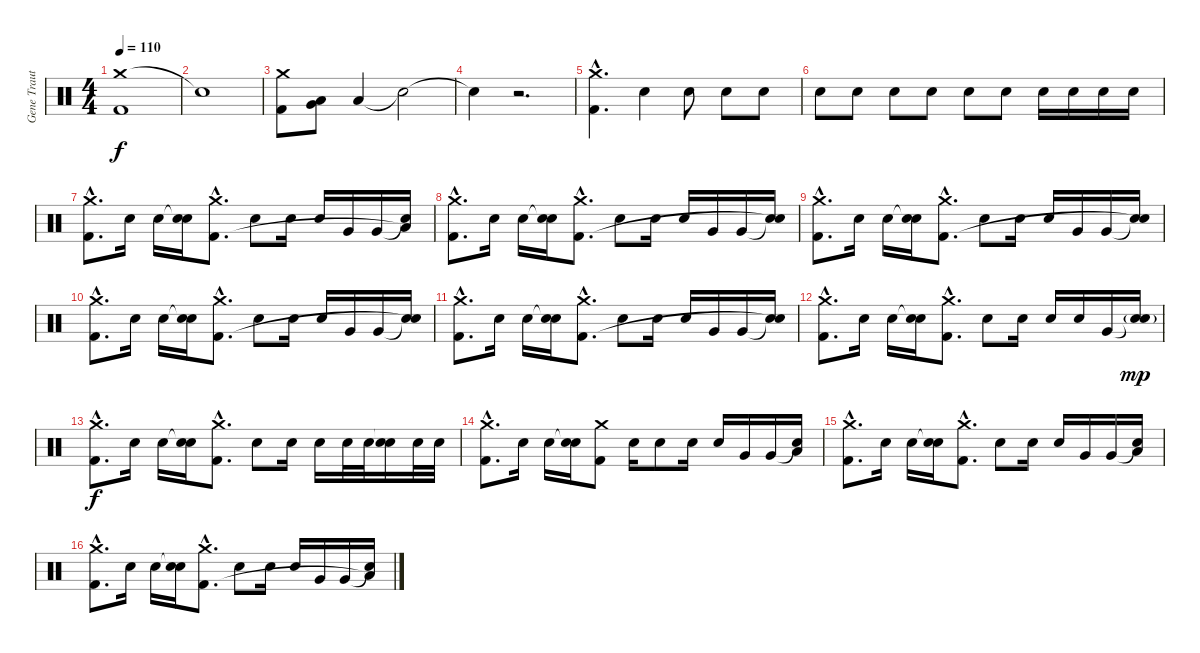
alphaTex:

\track ("Gene Trautmann (Drums)" "Gene Traut") {instrument percussion}
\staff {score}
\articulation defaults
\ts (4 4)
\tempo 110
\clef neutral
\ks c
("Crash medium (hit)" "Kick (hit) 2").1{dy f} |
"Snare (hit)"{t}.1 |
("Crash medium (hit)" "Kick (hit) 2").8 ("Very Low Tom (hit)" "Low Floor Tom (hit)").8 "Low Floor Tom (hit)".4 "Snare (hit)"{t}.2 |
"Snare (hit)"{t}.4 r.2{d} |
("Crash medium (hit)"{hac} "Kick (hit) 2"{hac}).4{d} "Electric Snare (hit)".4 "Electric Snare (hit)".8 "Electric Snare (hit)".8 "Electric Snare (hit)".8 |
"Electric Snare (hit)".8 "Electric Snare (hit)".8 "Electric Snare (hit)".8 "Electric Snare (hit)".8 "Electric Snare (hit)".8 "Electric Snare (hit)".8 "Electric Snare (hit)".16 "Electric Snare (hit)".16 "Electric Snare (hit)".16 "Electric Snare (hit)".16 |
("Crash medium (hit)"{hac} "Kick (hit) 2"{hac}).8{d} "Electric Snare (hit)".16 "Electric Snare (hit)".16 ("Snare (hit)"{t} "Electric Snare (hit)").16 ("Crash medium (hit)"{hac} "Kick (hit) 2"{hac}).8{d} "Electric Snare (hit)".8 "Electric Snare (hit)".16 "Electric Snare (hit)".16 "Very Low Tom (hit)".16 "Very Low Tom (hit)".16 ("Snare (hit)"{t} "Low Floor Tom (hit)"{t}).16 |
("Crash medium (hit)"{hac} "Kick (hit) 2"{hac}).8{d} "Electric Snare (hit)".16 "Electric Snare (hit)".16 ("Snare (hit)"{t} "Electric Snare (hit)").16 ("Crash medium (hit)"{hac} "Kick (hit) 2"{hac}).8{d} "Electric Snare (hit)".8 "Electric Snare (hit)".16 "Electric Snare (hit)".16 "Very Low Tom (hit)".16 "Very Low Tom (hit)".16 ("Snare (hit)"{t} "Snare (hit)"{t}).16 |
("Crash medium (hit)"{hac} "Kick (hit) 2"{hac}).8{d} "Electric Snare (hit)".16 "Electric Snare (hit)".16 ("Snare (hit)"{t} "Electric Snare (hit)").16 ("Crash medium (hit)"{hac} "Kick (hit) 2"{hac}).8{d} "Electric Snare (hit)".8 "Electric Snare (hit)".16 "Electric Snare (hit)".16 "Very Low Tom (hit)".16 "Very Low Tom (hit)".16 ("Snare (hit)"{t} "Snare (hit)"{t}).16 |
("Crash medium (hit)"{hac} "Kick (hit) 2"{hac}).8{d} "Electric Snare (hit)".16 "Electric Snare (hit)".16 ("Snare (hit)"{t} "Electric Snare (hit)").16 ("Crash medium (hit)"{hac} "Kick (hit) 2"{hac}).8{d} "Electric Snare (hit)".8 "Electric Snare (hit)".16 "Electric Snare (hit)".16 "Very Low Tom (hit)".16 "Very Low Tom (hit)".16 ("Snare (hit)"{t} "Snare (hit)"{t}).16 |
("Crash medium (hit)"{hac} "Kick (hit) 2"{hac}).8{d} "Electric Snare (hit)".16 "Electric Snare (hit)".16 ("Snare (hit)"{t} "Electric Snare (hit)").16 ("Crash medium (hit)"{hac} "Kick (hit) 2"{hac}).8{d} "Electric Snare (hit)".8 "Electric Snare (hit)".16 "Electric Snare (hit)".16 "Very Low Tom (hit)".16 "Very Low Tom (hit)".16 ("Snare (hit)"{t} "Snare (hit)"{t}).16 |
("Crash medium (hit)"{hac} "Kick (hit) 2"{hac}).8{d} "Electric Snare (hit)".16 "Electric Snare (hit)".16 ("Snare (hit)"{t} "Electric Snare (hit)").16 ("Crash medium (hit)"{hac} "Kick (hit) 2"{hac}).8{d} "Electric Snare (hit)".8 "Electric Snare (hit)".16 "Electric Snare (hit)".16 "Electric Snare (hit)".16 "Very Low Tom (hit)".16 ("Snare (hit)"{t} "Electric Snare (hit)"{g}).16{dy mp} |
("Crash medium (hit)"{hac} "Kick (hit) 2"{hac}).8{d dy f} "Electric Snare (hit)".16 "Electric Snare (hit)".16 ("Snare (hit)"{t} "Electric Snare (hit)").16 ("Crash medium (hit)"{hac} "Kick (hit) 2"{hac}).8{d} "Electric Snare (hit)".8 "Electric Snare (hit)".16 "Electric Snare (hit)".16 "Electric Snare (hit)".32 "Electric Snare (hit)".32 ("Snare (hit)"{t} "Electric Snare (hit)").16 "Electric Snare (hit)".32 "Electric Snare (hit)".32 |
("Crash medium (hit)"{hac} "Kick (hit) 2"{hac}).8{d} "Electric Snare (hit)".16 "Electric Snare (hit)".16 ("Snare (hit)"{t} "Electric Snare (hit)").16 ("Crash medium (hit)" "Kick (hit) 2").8 "Electric Snare (hit)".16 "Electric Snare (hit)".8 "Electric Snare (hit)".16 "Electric Snare (hit)".16 "Very Low Tom (hit)".16 "Very Low Tom (hit)".16 ("Snare (hit)"{t} "Low Floor Tom (hit)").16 |
("Crash medium (hit)"{hac} "Kick (hit) 2"{hac}).8{d} "Electric Snare (hit)".16 "Electric Snare (hit)".16 ("Snare (hit)"{t} "Electric Snare (hit)").16 ("Crash medium (hit)"{hac} "Kick (hit) 2"{hac}).8{d} "Electric Snare (hit)".8 "Electric Snare (hit)".16 "Electric Snare (hit)".16 "Very Low Tom (hit)".16 "Very Low Tom (hit)".16 ("Snare (hit)"{t} "Low Floor Tom (hit)").16 |
("Crash medium (hit)"{hac} "Kick (hit) 2"{hac}).8{d} "Electric Snare (hit)".16 "Electric Snare (hit)".16 ("Snare (hit)"{t} "Electric Snare (hit)").16 ("Crash medium (hit)"{hac} "Kick (hit) 2"{hac}).8{d} "Electric Snare (hit)".8 "Electric Snare (hit)".16 "Electric Snare (hit)".16 "Very Low Tom (hit)".16 "Very Low Tom (hit)".16 ("Snare (hit)"{t} "Low Floor Tom (hit)"{t}).16
